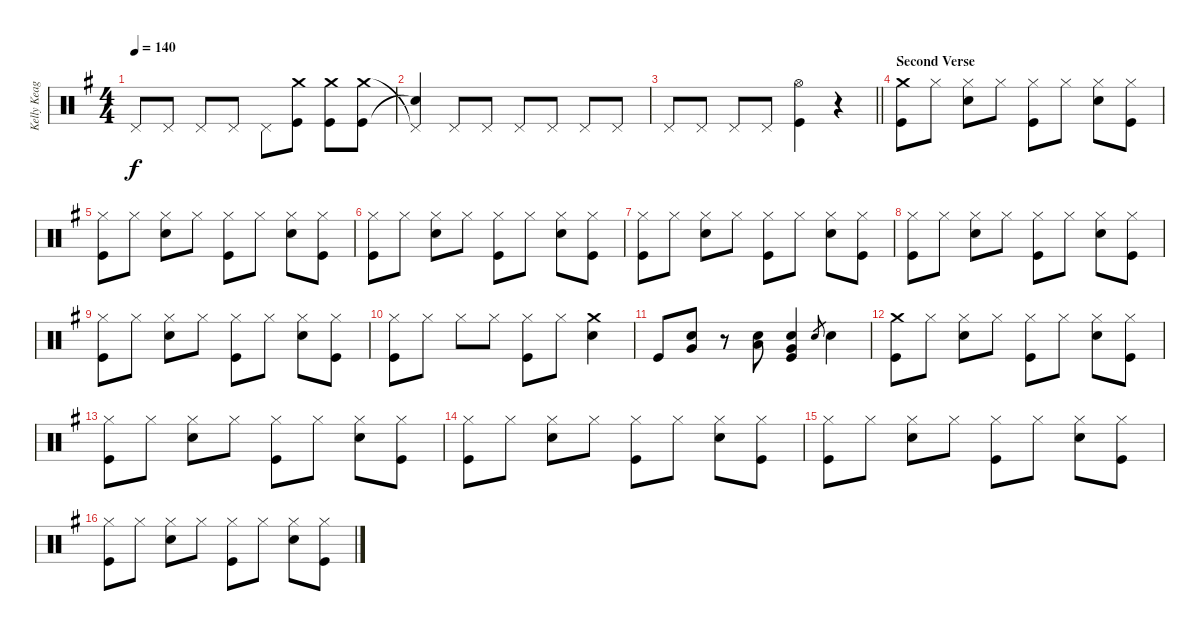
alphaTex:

\track ("Kelly Keagy" "Kelly Keag") {instrument percussion}
\staff {score}
\articulation defaults
\ts (4 4)
\tempo 140
\clef neutral
\ks g "Pedal Hi-Hat (hit)".8{dy f} "Pedal Hi-Hat (hit)".8 "Pedal Hi-Hat (hit)".8 "Pedal Hi-Hat (hit)".8 "Pedal Hi-Hat (hit)".8
("Crash medium (hit)" "Kick (hit)").8 ("Crash medium (hit)" "Kick (hit)").8 ("Crash medium (hit)" "Kick (hit)").8 |
("Pedal Hi-Hat (hit)"{t} "Snare (hit)"{t}).4 "Pedal Hi-Hat (hit)".8 "Pedal Hi-Hat (hit)".8 "Pedal Hi-Hat (hit)".8 "Pedal Hi-Hat (hit)".8 "Pedal Hi-Hat (hit)".8 "Pedal Hi-Hat (hit)".8 |
\barLineRight lightlight "Pedal Hi-Hat (hit)".8 "Pedal Hi-Hat (hit)".8 "Pedal Hi-Hat (hit)".8 "Pedal Hi-Hat (hit)".8
("Hi-Hat (open)" "Kick (hit)").4 r.4 |
\section ("" "Second Verse")
("Crash medium (hit)" "Kick (hit)").8 "Hi-Hat (closed)".8 ("Hi-Hat (closed)" "Snare (hit) 2").8 "Hi-Hat (closed)".8 ("Hi-Hat (closed)" "Kick (hit)").8 "Hi-Hat (closed)".8 ("Hi-Hat (closed)" "Snare (hit) 2").8 ("Hi-Hat (closed)" "Kick (hit)").8 |
("Hi-Hat (closed)" "Kick (hit)").8 "Hi-Hat (closed)".8 ("Hi-Hat (closed)" "Snare (hit) 2").8 "Hi-Hat (closed)".8 ("Hi-Hat (closed)" "Kick (hit)").8 "Hi-Hat (closed)".8 ("Hi-Hat (closed)" "Snare (hit) 2").8 ("Hi-Hat (closed)" "Kick (hit)").8 |
("Hi-Hat (closed)" "Kick (hit)").8 "Hi-Hat (closed)".8 ("Hi-Hat (closed)" "Snare (hit) 2").8 "Hi-Hat (closed)".8 ("Hi-Hat (closed)" "Kick (hit)").8 "Hi-Hat (closed)".8 ("Hi-Hat (closed)" "Snare (hit) 2").8 ("Hi-Hat (closed)" "Kick (hit)").8 |
("Hi-Hat (closed)" "Kick (hit)").8 "Hi-Hat (closed)".8 ("Hi-Hat (closed)" "Snare (hit) 2").8 "Hi-Hat (closed)".8 ("Hi-Hat (closed)" "Kick (hit)").8 "Hi-Hat (closed)".8 ("Hi-Hat (closed)" "Snare (hit) 2").8 ("Hi-Hat (closed)" "Kick (hit)").8 |
("Hi-Hat (closed)" "Kick (hit)").8 "Hi-Hat (closed)".8 ("Hi-Hat (closed)" "Snare (hit) 2").8 "Hi-Hat (closed)".8 ("Hi-Hat (closed)" "Kick (hit)").8 "Hi-Hat (closed)".8 ("Hi-Hat (closed)" "Snare (hit) 2").8 ("Hi-Hat (closed)" "Kick (hit)").8 |
("Hi-Hat (closed)" "Kick (hit)").8 "Hi-Hat (closed)".8 ("Hi-Hat (closed)" "Snare (hit) 2").8 "Hi-Hat (closed)".8 ("Hi-Hat (closed)" "Kick (hit)").8 "Hi-Hat (closed)".8 ("Hi-Hat (closed)" "Snare (hit) 2").8 ("Hi-Hat (closed)" "Kick (hit)").8 |
("Hi-Hat (closed)" "Kick (hit)").8 "Hi-Hat (closed)".8 "Hi-Hat (closed)".8 "Hi-Hat (closed)".8 ("Hi-Hat (closed)" "Kick (hit)").8 "Hi-Hat (closed)".8 ("Crash medium (hit)" "Snare (hit) 2").4 |
"Kick (hit)".8 ("Snare (hit) 2" "Very Low Tom (hit)").8 r.8 ("Snare (hit) 2" "Low Floor Tom (hit)").8 ("Snare (hit) 2" "Very Low Tom (hit)" "Kick (hit)").4 "Snare (hit) 2".8{gr} "Snare (hit) 2".4 |
("Crash medium (hit)" "Kick (hit)").8 "Hi-Hat (closed)".8 ("Hi-Hat (closed)" "Snare (hit) 2").8 "Hi-Hat (closed)".8 ("Hi-Hat (closed)" "Kick (hit)").8 "Hi-Hat (closed)".8 ("Hi-Hat (closed)" "Snare (hit) 2").8 ("Hi-Hat (closed)" "Kick (hit)").8 |
("Hi-Hat (closed)" "Kick (hit)").8 "Hi-Hat (closed)".8 ("Hi-Hat (closed)" "Snare (hit) 2").8 "Hi-Hat (closed)".8 ("Hi-Hat (closed)" "Kick (hit)").8 "Hi-Hat (closed)".8 ("Hi-Hat (closed)" "Snare (hit) 2").8 ("Hi-Hat (closed)" "Kick (hit)").8 |
("Hi-Hat (closed)" "Kick (hit)").8 "Hi-Hat (closed)".8 ("Hi-Hat (closed)" "Snare (hit) 2").8 "Hi-Hat (closed)".8 ("Hi-Hat (closed)" "Kick (hit)").8 "Hi-Hat (closed)".8 ("Hi-Hat (closed)" "Snare (hit) 2").8 ("Hi-Hat (closed)" "Kick (hit)").8 |
("Hi-Hat (closed)" "Kick (hit)").8 "Hi-Hat (closed)".8 ("Hi-Hat (closed)" "Snare (hit) 2").8 "Hi-Hat (closed)".8 ("Hi-Hat (closed)" "Kick (hit)").8 "Hi-Hat (closed)".8 ("Hi-Hat (closed)" "Snare (hit) 2").8 ("Hi-Hat (closed)" "Kick (hit)").8 |
("Hi-Hat (closed)" "Kick (hit)").8 "Hi-Hat (closed)".8 ("Hi-Hat (closed)" "Snare (hit) 2").8 "Hi-Hat (closed)".8 ("Hi-Hat (closed)" "Kick (hit)").8 "Hi-Hat (closed)".8 ("Hi-Hat (closed)" "Snare (hit) 2").8 ("Hi-Hat (closed)" "Kick (hit)").8
